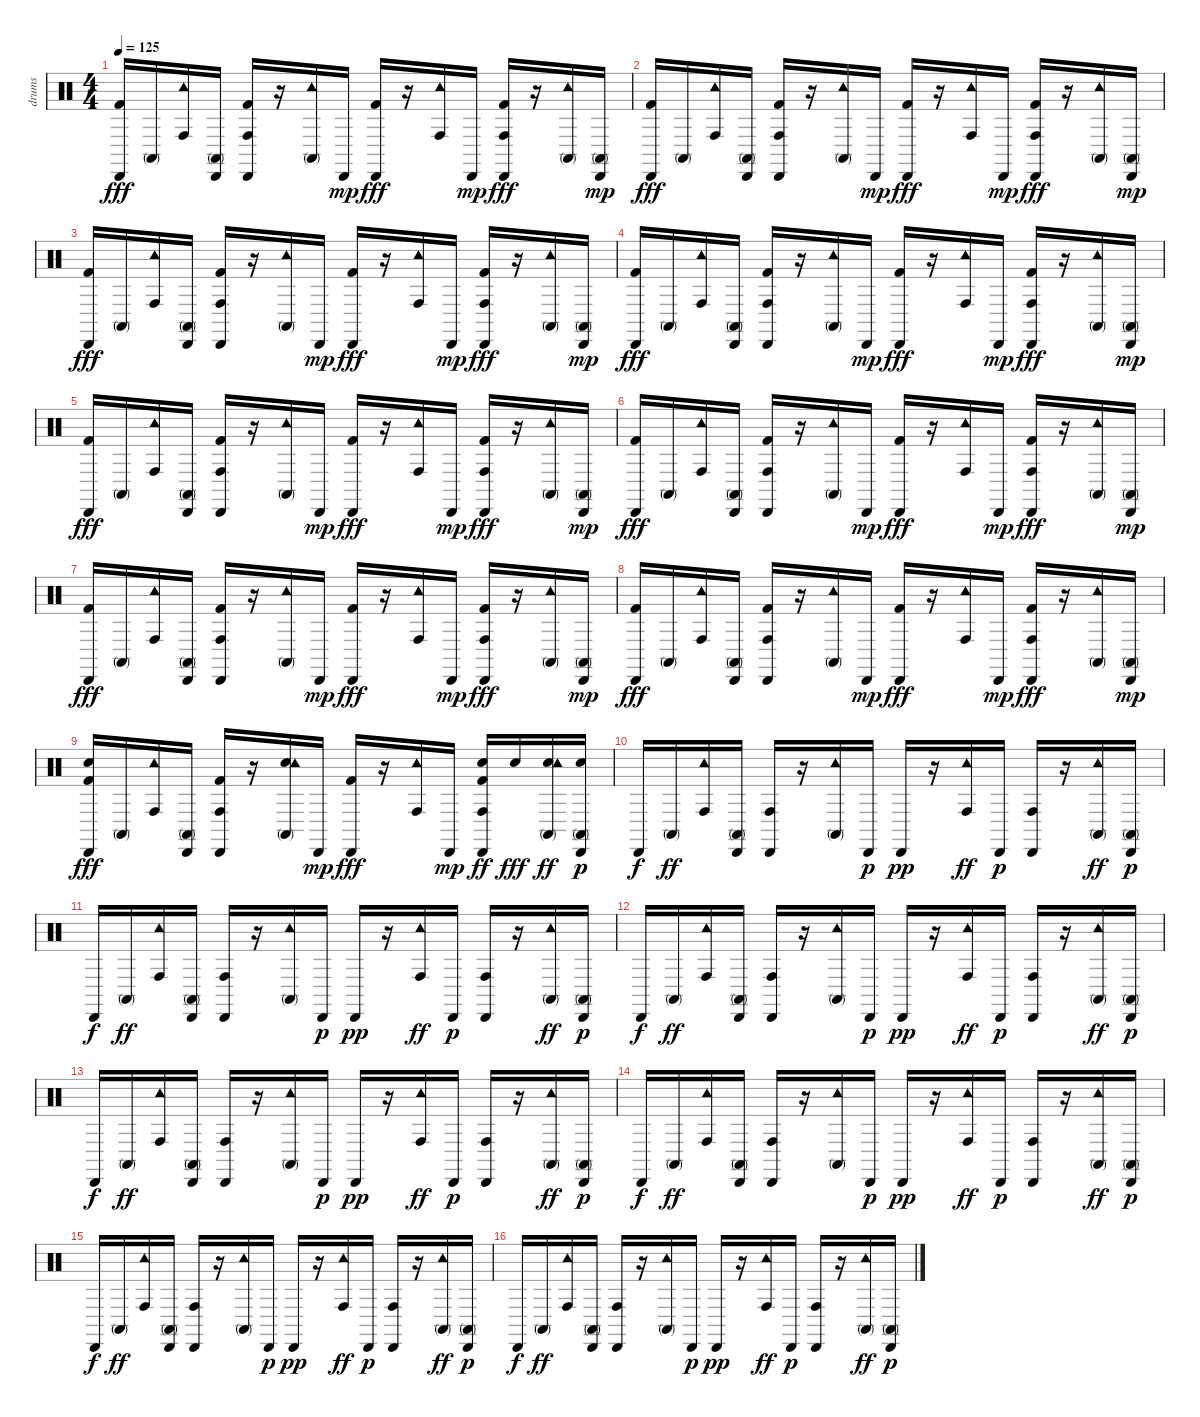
\track ("drums" "drums") {instrument percussion}
\staff {score}
\articulation defaults
\ts (4 4)
\tempo 125
\clef neutral
\ks c
("Cabasa (hit)" "Kick (hit) 2").16{dy fff} "Conga high (mute)".16 ("Conga high (hit)" "Tambourine (hit)").16 ("Cabasa (hit)" "Conga high (mute)").16 ("Cabasa (hit)" "Conga high (hit)" "Kick (hit) 2").16 r.16 ("Conga high (mute)" "Tambourine (hit)").16 "Cabasa (hit)".16{dy mp} ("Cabasa (hit)" "Kick (hit) 2").16{dy fff} r.16 ("Conga high (hit)" "Tambourine (hit)").16 "Cabasa (hit)".16{dy mp} ("Conga high (hit)" "Cabasa (hit)" "Kick (hit) 2").16{dy fff} r.16 ("Conga high (mute)" "Tambourine (hit)").16 ("Conga high (mute)" "Cabasa (hit)").16{dy mp} |
("Cabasa (hit)" "Kick (hit) 2").16{dy fff} "Conga high (mute)".16 ("Conga high (hit)" "Tambourine (hit)").16 ("Cabasa (hit)" "Conga high (mute)").16 ("Cabasa (hit)" "Conga high (hit)" "Kick (hit) 2").16 r.16 ("Conga high (mute)" "Tambourine (hit)").16 "Cabasa (hit)".16{dy mp} ("Cabasa (hit)" "Kick (hit) 2").16{dy fff} r.16 ("Conga high (hit)" "Tambourine (hit)").16 "Cabasa (hit)".16{dy mp} ("Conga high (hit)" "Cabasa (hit)" "Kick (hit) 2").16{dy fff} r.16 ("Conga high (mute)" "Tambourine (hit)").16 ("Conga high (mute)" "Cabasa (hit)").16{dy mp} |
("Cabasa (hit)" "Kick (hit) 2").16{dy fff} "Conga high (mute)".16 ("Conga high (hit)" "Tambourine (hit)").16 ("Cabasa (hit)" "Conga high (mute)").16 ("Cabasa (hit)" "Conga high (hit)" "Kick (hit) 2").16 r.16 ("Conga high (mute)" "Tambourine (hit)").16 "Cabasa (hit)".16{dy mp} ("Cabasa (hit)" "Kick (hit) 2").16{dy fff} r.16 ("Conga high (hit)" "Tambourine (hit)").16 "Cabasa (hit)".16{dy mp} ("Conga high (hit)" "Cabasa (hit)" "Kick (hit) 2").16{dy fff} r.16 ("Conga high (mute)" "Tambourine (hit)").16 ("Conga high (mute)" "Cabasa (hit)").16{dy mp} |
("Cabasa (hit)" "Kick (hit) 2").16{dy fff} "Conga high (mute)".16 ("Conga high (hit)" "Tambourine (hit)").16 ("Cabasa (hit)" "Conga high (mute)").16 ("Cabasa (hit)" "Conga high (hit)" "Kick (hit) 2").16 r.16 ("Conga high (mute)" "Tambourine (hit)").16 "Cabasa (hit)".16{dy mp} ("Cabasa (hit)" "Kick (hit) 2").16{dy fff} r.16 ("Conga high (hit)" "Tambourine (hit)").16 "Cabasa (hit)".16{dy mp} ("Conga high (hit)" "Cabasa (hit)" "Kick (hit) 2").16{dy fff} r.16 ("Conga high (mute)" "Tambourine (hit)").16 ("Conga high (mute)" "Cabasa (hit)").16{dy mp} |
("Cabasa (hit)" "Kick (hit) 2").16{dy fff} "Conga high (mute)".16 ("Conga high (hit)" "Tambourine (hit)").16 ("Cabasa (hit)" "Conga high (mute)").16 ("Cabasa (hit)" "Conga high (hit)" "Kick (hit) 2").16 r.16 ("Conga high (mute)" "Tambourine (hit)").16 "Cabasa (hit)".16{dy mp} ("Cabasa (hit)" "Kick (hit) 2").16{dy fff} r.16 ("Conga high (hit)" "Tambourine (hit)").16 "Cabasa (hit)".16{dy mp} ("Conga high (hit)" "Cabasa (hit)" "Kick (hit) 2").16{dy fff} r.16 ("Conga high (mute)" "Tambourine (hit)").16 ("Conga high (mute)" "Cabasa (hit)").16{dy mp} |
("Cabasa (hit)" "Kick (hit) 2").16{dy fff} "Conga high (mute)".16 ("Conga high (hit)" "Tambourine (hit)").16 ("Cabasa (hit)" "Conga high (mute)").16 ("Cabasa (hit)" "Conga high (hit)" "Kick (hit) 2").16 r.16 ("Conga high (mute)" "Tambourine (hit)").16 "Cabasa (hit)".16{dy mp} ("Cabasa (hit)" "Kick (hit) 2").16{dy fff} r.16 ("Conga high (hit)" "Tambourine (hit)").16 "Cabasa (hit)".16{dy mp} ("Conga high (hit)" "Cabasa (hit)" "Kick (hit) 2").16{dy fff} r.16 ("Conga high (mute)" "Tambourine (hit)").16 ("Conga high (mute)" "Cabasa (hit)").16{dy mp} |
("Cabasa (hit)" "Kick (hit) 2").16{dy fff} "Conga high (mute)".16 ("Conga high (hit)" "Tambourine (hit)").16 ("Cabasa (hit)" "Conga high (mute)").16 ("Cabasa (hit)" "Conga high (hit)" "Kick (hit) 2").16 r.16 ("Conga high (mute)" "Tambourine (hit)").16 "Cabasa (hit)".16{dy mp} ("Cabasa (hit)" "Kick (hit) 2").16{dy fff} r.16 ("Conga high (hit)" "Tambourine (hit)").16 "Cabasa (hit)".16{dy mp} ("Conga high (hit)" "Cabasa (hit)" "Kick (hit) 2").16{dy fff} r.16 ("Conga high (mute)" "Tambourine (hit)").16 ("Conga high (mute)" "Cabasa (hit)").16{dy mp} |
("Cabasa (hit)" "Kick (hit) 2").16{dy fff} "Conga high (mute)".16 ("Conga high (hit)" "Tambourine (hit)").16 ("Cabasa (hit)" "Conga high (mute)").16 ("Cabasa (hit)" "Conga high (hit)" "Kick (hit) 2").16 r.16 ("Conga high (mute)" "Tambourine (hit)").16 "Cabasa (hit)".16{dy mp} ("Cabasa (hit)" "Kick (hit) 2").16{dy fff} r.16 ("Conga high (hit)" "Tambourine (hit)").16 "Cabasa (hit)".16{dy mp} ("Conga high (hit)" "Cabasa (hit)" "Kick (hit) 2").16{dy fff} r.16 ("Conga high (mute)" "Tambourine (hit)").16 ("Conga high (mute)" "Cabasa (hit)").16{dy mp} |
("Electric Snare (hit)" "Cabasa (hit)" "Kick (hit) 2").16{dy fff} "Conga high (mute)".16 ("Conga high (hit)" "Tambourine (hit)").16 ("Cabasa (hit)" "Conga high (mute)").16 ("Cabasa (hit)" "Conga high (hit)" "Kick (hit) 2").16 r.16 ("Electric Snare (hit)" "Conga high (mute)" "Tambourine (hit)").16 "Cabasa (hit)".16{dy mp} ("Cabasa (hit)" "Kick (hit) 2").16{dy fff} r.16 ("Conga high (hit)" "Tambourine (hit)").16 "Cabasa (hit)".16{dy mp} ("Electric Snare (hit)" "Conga high (hit)" "Cabasa (hit)" "Kick (hit) 2").16{dy ff volume 16} "Electric Snare (hit)".16{dy fff} ("Electric Snare (hit)" "Conga high (mute)" "Tambourine (hit)").16{dy ff} ("Electric Snare (hit)" "Conga high (mute)" "Cabasa (hit)").16{dy p} |
"Cabasa (hit)".16{dy f} "Conga high (mute)".16{dy ff} ("Conga high (hit)" "Tambourine (hit)").16 ("Cabasa (hit)" "Conga high (mute)").16 ("Cabasa (hit)" "Conga high (hit)").16 r.16 ("Conga high (mute)" "Tambourine (hit)").16 "Cabasa (hit)".16{dy p} "Cabasa (hit)".16{dy pp} r.16 ("Conga high (hit)" "Tambourine (hit)").16{dy ff} "Cabasa (hit)".16{dy p} ("Conga high (hit)" "Cabasa (hit)").16 r.16 ("Conga high (mute)" "Tambourine (hit)").16{dy ff} ("Conga high (mute)" "Cabasa (hit)").16{dy p} |
"Cabasa (hit)".16{dy f} "Conga high (mute)".16{dy ff} ("Conga high (hit)" "Tambourine (hit)").16 ("Cabasa (hit)" "Conga high (mute)").16 ("Cabasa (hit)" "Conga high (hit)").16 r.16 ("Conga high (mute)" "Tambourine (hit)").16 "Cabasa (hit)".16{dy p} "Cabasa (hit)".16{dy pp} r.16 ("Conga high (hit)" "Tambourine (hit)").16{dy ff} "Cabasa (hit)".16{dy p} ("Conga high (hit)" "Cabasa (hit)").16 r.16 ("Conga high (mute)" "Tambourine (hit)").16{dy ff} ("Conga high (mute)" "Cabasa (hit)").16{dy p} |
"Cabasa (hit)".16{dy f} "Conga high (mute)".16{dy ff} ("Conga high (hit)" "Tambourine (hit)").16 ("Cabasa (hit)" "Conga high (mute)").16 ("Cabasa (hit)" "Conga high (hit)").16 r.16 ("Conga high (mute)" "Tambourine (hit)").16 "Cabasa (hit)".16{dy p} "Cabasa (hit)".16{dy pp} r.16 ("Conga high (hit)" "Tambourine (hit)").16{dy ff} "Cabasa (hit)".16{dy p} ("Conga high (hit)" "Cabasa (hit)").16 r.16 ("Conga high (mute)" "Tambourine (hit)").16{dy ff} ("Conga high (mute)" "Cabasa (hit)").16{dy p} |
"Cabasa (hit)".16{dy f} "Conga high (mute)".16{dy ff} ("Conga high (hit)" "Tambourine (hit)").16 ("Cabasa (hit)" "Conga high (mute)").16 ("Cabasa (hit)" "Conga high (hit)").16 r.16 ("Conga high (mute)" "Tambourine (hit)").16 "Cabasa (hit)".16{dy p} "Cabasa (hit)".16{dy pp} r.16 ("Conga high (hit)" "Tambourine (hit)").16{dy ff} "Cabasa (hit)".16{dy p} ("Conga high (hit)" "Cabasa (hit)").16 r.16 ("Conga high (mute)" "Tambourine (hit)").16{dy ff} ("Conga high (mute)" "Cabasa (hit)").16{dy p} |
"Cabasa (hit)".16{dy f} "Conga high (mute)".16{dy ff} ("Conga high (hit)" "Tambourine (hit)").16 ("Cabasa (hit)" "Conga high (mute)").16 ("Cabasa (hit)" "Conga high (hit)").16 r.16 ("Conga high (mute)" "Tambourine (hit)").16 "Cabasa (hit)".16{dy p} "Cabasa (hit)".16{dy pp} r.16 ("Conga high (hit)" "Tambourine (hit)").16{dy ff} "Cabasa (hit)".16{dy p} ("Conga high (hit)" "Cabasa (hit)").16 r.16 ("Conga high (mute)" "Tambourine (hit)").16{dy ff} ("Conga high (mute)" "Cabasa (hit)").16{dy p} |
"Cabasa (hit)".16{dy f} "Conga high (mute)".16{dy ff} ("Conga high (hit)" "Tambourine (hit)").16 ("Cabasa (hit)" "Conga high (mute)").16 ("Cabasa (hit)" "Conga high (hit)").16 r.16 ("Conga high (mute)" "Tambourine (hit)").16 "Cabasa (hit)".16{dy p} "Cabasa (hit)".16{dy pp} r.16 ("Conga high (hit)" "Tambourine (hit)").16{dy ff} "Cabasa (hit)".16{dy p} ("Conga high (hit)" "Cabasa (hit)").16 r.16 ("Conga high (mute)" "Tambourine (hit)").16{dy ff} ("Conga high (mute)" "Cabasa (hit)").16{dy p} |
"Cabasa (hit)".16{dy f} "Conga high (mute)".16{dy ff} ("Conga high (hit)" "Tambourine (hit)").16 ("Cabasa (hit)" "Conga high (mute)").16 ("Cabasa (hit)" "Conga high (hit)").16 r.16 ("Conga high (mute)" "Tambourine (hit)").16 "Cabasa (hit)".16{dy p} "Cabasa (hit)".16{dy pp} r.16 ("Conga high (hit)" "Tambourine (hit)").16{dy ff} "Cabasa (hit)".16{dy p} ("Conga high (hit)" "Cabasa (hit)").16 r.16 ("Conga high (mute)" "Tambourine (hit)").16{dy ff} ("Conga high (mute)" "Cabasa (hit)").16{dy p}
